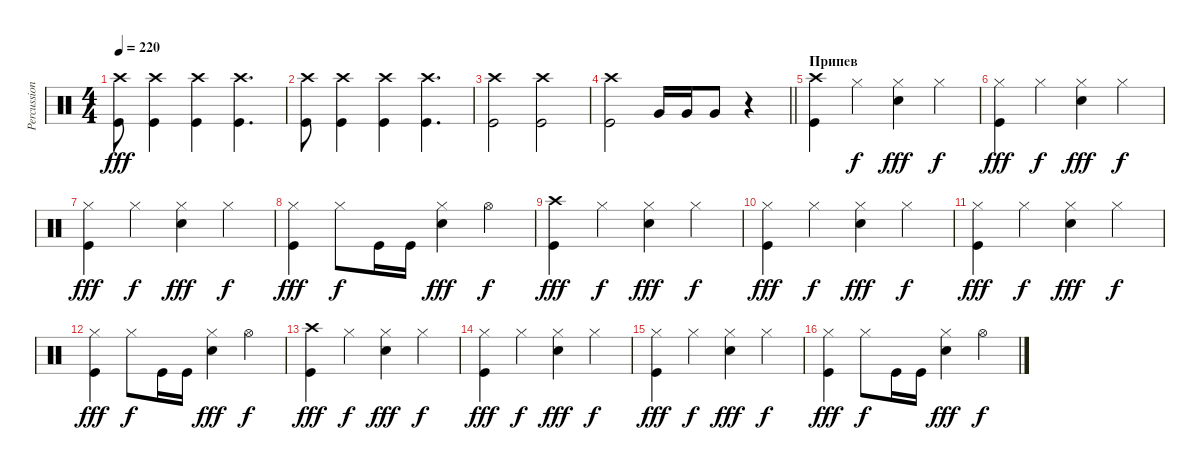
\track ("Percussion" "Percussion") {instrument percussion}
\staff {score}
\articulation defaults
\ts (4 4)
\tempo 220
\clef neutral
\ks c
("Kick (hit)" "Crash high (hit)").8{dy fff} ("Kick (hit)" "Crash high (hit)").4 ("Kick (hit)" "Crash high (hit)").4 ("Kick (hit)" "Crash high (hit)").4{d} |
("Kick (hit)" "Crash high (hit)").8 ("Kick (hit)" "Crash high (hit)").4 ("Kick (hit)" "Crash high (hit)").4 ("Kick (hit)" "Crash high (hit)").4{d} |
("Kick (hit)" "Crash high (hit)").2 ("Kick (hit)" "Crash high (hit)").2 |
\barLineRight lightlight
("Kick (hit)" "Crash high (hit)").2 "Very Low Tom (hit)".16 "Very Low Tom (hit)".16 "Very Low Tom (hit)".8 r.4 |
\section ("" "Припев")
("Kick (hit)" "Crash high (hit)").4 "Hi-Hat (closed)".4{dy f} ("Snare (hit) 2" "Hi-Hat (closed)").4{dy fff} "Hi-Hat (closed)".4{dy f} |
("Kick (hit)" "Hi-Hat (closed)").4{dy fff} "Hi-Hat (closed)".4{dy f} ("Snare (hit) 2" "Hi-Hat (closed)").4{dy fff} "Hi-Hat (closed)".4{dy f} |
("Kick (hit)" "Hi-Hat (closed)").4{dy fff} "Hi-Hat (closed)".4{dy f} ("Snare (hit) 2" "Hi-Hat (closed)").4{dy fff} "Hi-Hat (closed)".4{dy f} |
("Kick (hit)" "Hi-Hat (closed)").4{dy fff} "Hi-Hat (closed)".8{dy f} "Kick (hit)".16 "Kick (hit)".16 ("Snare (hit) 2" "Hi-Hat (closed)").4{dy fff} "Hi-Hat (open)".4{dy f} |
("Kick (hit)" "Crash high (hit)").4{dy fff} "Hi-Hat (closed)".4{dy f} ("Snare (hit) 2" "Hi-Hat (closed)").4{dy fff} "Hi-Hat (closed)".4{dy f} |
("Kick (hit)" "Hi-Hat (closed)").4{dy fff} "Hi-Hat (closed)".4{dy f} ("Snare (hit) 2" "Hi-Hat (closed)").4{dy fff} "Hi-Hat (closed)".4{dy f} |
("Kick (hit)" "Hi-Hat (closed)").4{dy fff} "Hi-Hat (closed)".4{dy f} ("Snare (hit) 2" "Hi-Hat (closed)").4{dy fff} "Hi-Hat (closed)".4{dy f} |
("Kick (hit)" "Hi-Hat (closed)").4{dy fff} "Hi-Hat (closed)".8{dy f} "Kick (hit)".16 "Kick (hit)".16 ("Snare (hit) 2" "Hi-Hat (closed)").4{dy fff} "Hi-Hat (open)".4{dy f} |
("Kick (hit)" "Crash high (hit)").4{dy fff} "Hi-Hat (closed)".4{dy f} ("Snare (hit) 2" "Hi-Hat (closed)").4{dy fff} "Hi-Hat (closed)".4{dy f} |
("Kick (hit)" "Hi-Hat (closed)").4{dy fff} "Hi-Hat (closed)".4{dy f} ("Snare (hit) 2" "Hi-Hat (closed)").4{dy fff} "Hi-Hat (closed)".4{dy f} |
("Kick (hit)" "Hi-Hat (closed)").4{dy fff} "Hi-Hat (closed)".4{dy f} ("Snare (hit) 2" "Hi-Hat (closed)").4{dy fff} "Hi-Hat (closed)".4{dy f} |
("Kick (hit)" "Hi-Hat (closed)").4{dy fff} "Hi-Hat (closed)".8{dy f} "Kick (hit)".16 "Kick (hit)".16 ("Snare (hit) 2" "Hi-Hat (closed)").4{dy fff} "Hi-Hat (open)".4{dy f}
